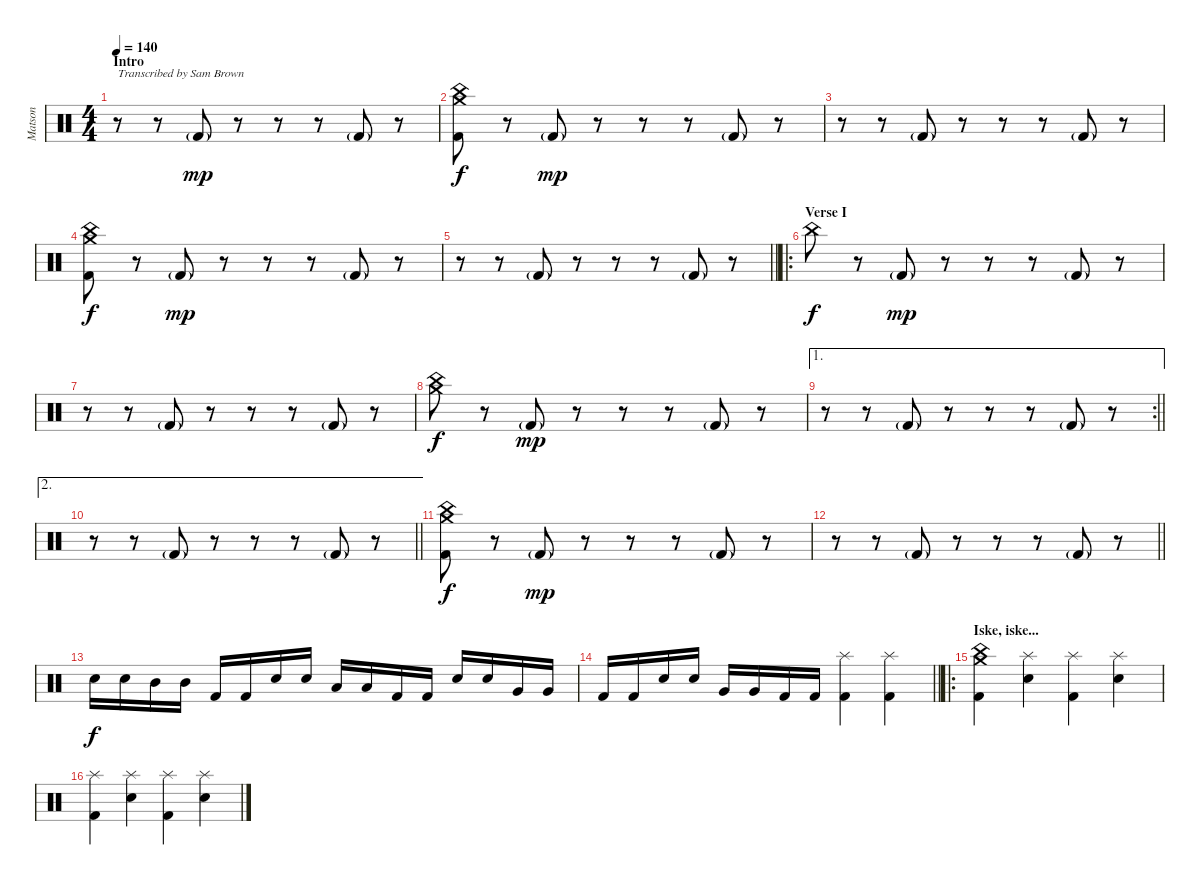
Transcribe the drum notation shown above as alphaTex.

\track ("Matson" "Matson") {instrument percussion}
\staff {score}
\articulation defaults
\ts (4 4)
\section ("" "Intro")
\tempo 140
\clef neutral
\ks c
r.8{txt "Transcribed by Sam Brown" dy mp} r.8 "Kick (hit) 2"{g}.8 r.8 r.8 r.8 "Kick (hit) 2"{g}.8 r.8 |
("Kick (hit) 2" "China (hit)" "Crash medium (hit)").8{dy f} r.8 "Kick (hit) 2"{g}.8{dy mp} r.8 r.8 r.8 "Kick (hit) 2"{g}.8 r.8 |
r.8 r.8 "Kick (hit) 2"{g}.8 r.8 r.8 r.8 "Kick (hit) 2"{g}.8 r.8 |
("Kick (hit) 2" "China (hit)" "Crash medium (hit)").8{dy f} r.8 "Kick (hit) 2"{g}.8{dy mp} r.8 r.8 r.8 "Kick (hit) 2"{g}.8 r.8 |
\barLineRight lightlight
r.8 r.8 "Kick (hit) 2"{g}.8 r.8 r.8 r.8 "Kick (hit) 2"{g}.8 r.8 |
\ro
\section ("" "Verse I")
"China (hit)".8{dy f} r.8 "Kick (hit) 2"{g}.8{dy mp} r.8 r.8 r.8 "Kick (hit) 2"{g}.8 r.8 |
r.8 r.8 "Kick (hit) 2"{g}.8 r.8 r.8 r.8 "Kick (hit) 2"{g}.8 r.8 |
("China (hit)" "Crash medium (hit)").8{dy f} r.8 "Kick (hit) 2"{g}.8{dy mp} r.8 r.8 r.8 "Kick (hit) 2"{g}.8 r.8 |
\ae 1
\rc 2
\barLineRight lightlight
r.8 r.8 "Kick (hit) 2"{g}.8 r.8 r.8 r.8 "Kick (hit) 2"{g}.8 r.8 |
\ae 2
\barLineRight lightlight
r.8 r.8 "Kick (hit) 2"{g}.8 r.8 r.8 r.8 "Kick (hit) 2"{g}.8 r.8 |
\section ("" "")
("Kick (hit) 2" "China (hit)" "Crash medium (hit)").8{dy f} r.8 "Kick (hit) 2"{g}.8{dy mp} r.8 r.8 r.8 "Kick (hit) 2"{g}.8 r.8 |
\barLineRight lightlight
r.8 r.8 "Kick (hit) 2"{g}.8 r.8 r.8 r.8 "Kick (hit) 2"{g}.8 r.8 |
"Snare (hit) 2".16{dy f} "Snare (hit) 2".16 "Mid Tom (hit)".16 "Mid Tom (hit)".16 "Kick (hit) 2".16 "Kick (hit) 2".16 "Snare (hit) 2".16 "Snare (hit) 2".16 "Low Tom (hit)".16 "Low Tom (hit)".16 "Kick (hit) 2".16 "Kick (hit) 2".16 "Snare (hit) 2".16 "Snare (hit) 2".16 "Very Low Tom (hit)".16 "Very Low Tom (hit)".16 |
\barLineRight lightlight "Kick (hit) 2".16 "Kick (hit) 2".16 "Snare (hit) 2".16 "Snare (hit) 2".16 "Very Low Tom (hit)".16 "Very Low Tom (hit)".16 "Kick (hit) 2".16 "Kick (hit) 2".16
("Kick (hit) 2" "Splash (hit)").4 ("Kick (hit) 2" "Splash (hit)").4 |
\ro
\section ("" "Iske, iske...")
("Kick (hit) 2" "China (hit)" "Crash medium (hit)").4 ("Snare (hit) 2" "Splash (hit)").4 ("Kick (hit) 2" "Splash (hit)").4 ("Snare (hit) 2" "Splash (hit)").4 |
("Kick (hit) 2" "Splash (hit)").4 ("Snare (hit) 2" "Splash (hit)").4 ("Kick (hit) 2" "Splash (hit)").4 ("Snare (hit) 2" "Splash (hit)").4
